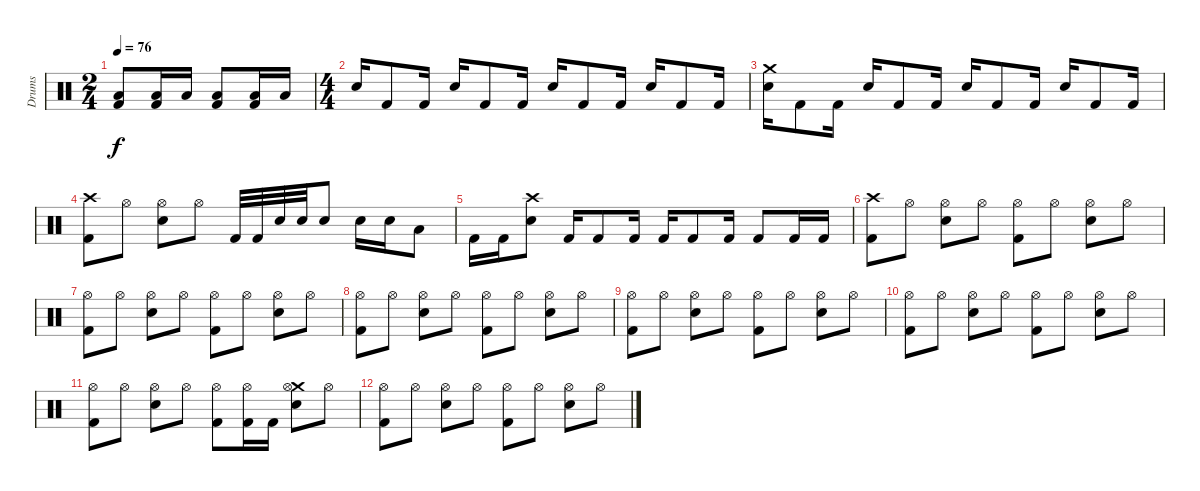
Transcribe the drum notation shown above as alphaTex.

\track ("Drums" "Drums") {instrument percussion}
\staff {score}
\articulation defaults
\ts (2 4)
\tempo 76
\clef neutral
\ks c
("Kick (hit) 2" "Low Floor Tom (hit)").8{dy f} ("Kick (hit) 2" "Low Floor Tom (hit)").16 "Low Floor Tom (hit)".16 ("Kick (hit) 2" "Low Floor Tom (hit)").8 ("Kick (hit) 2" "Low Floor Tom (hit)").16 "Low Floor Tom (hit)".16 |
\ts (4 4)
"Snare (hit) 2".16 "Kick (hit) 2".8 "Kick (hit) 2".16 "Snare (hit) 2".16 "Kick (hit) 2".8 "Kick (hit) 2".16 "Snare (hit) 2".16 "Kick (hit) 2".8 "Kick (hit) 2".16 "Snare (hit) 2".16 "Kick (hit) 2".8 "Kick (hit) 2".16 |
("Crash medium (hit)" "Snare (hit) 2").16 "Kick (hit) 2".8 "Kick (hit) 2".16 "Snare (hit) 2".16 "Kick (hit) 2".8 "Kick (hit) 2".16 "Snare (hit) 2".16 "Kick (hit) 2".8 "Kick (hit) 2".16 "Snare (hit) 2".16 "Kick (hit) 2".8 "Kick (hit) 2".16 |
("Crash high (hit)" "Kick (hit) 2").8 "Hi-Hat (open)".8 ("Snare (hit) 2" "Hi-Hat (open)").8 "Hi-Hat (open)".8 "Kick (hit) 2".32 "Kick (hit) 2".32 "Snare (hit) 2".32 "Snare (hit) 2".32 "Snare (hit) 2".8 "Snare (hit) 2".16 "Snare (hit) 2".16 "Low Tom (hit)".8 |
"Kick (hit) 2".16 "Kick (hit) 2".16 ("Snare (hit) 2" "Crash high (hit)").8 "Kick (hit) 2".16 "Kick (hit) 2".8 "Kick (hit) 2".16 "Kick (hit) 2".16 "Kick (hit) 2".8 "Kick (hit) 2".16 "Kick (hit) 2".8 "Kick (hit) 2".16 "Kick (hit) 2".16 |
("Crash high (hit)" "Kick (hit) 2").8 "Hi-Hat (open)".8 ("Snare (hit) 2" "Hi-Hat (open)").8 "Hi-Hat (open)".8 ("Kick (hit) 2" "Hi-Hat (open)").8 "Hi-Hat (open)".8 ("Snare (hit) 2" "Hi-Hat (open)").8 "Hi-Hat (open)".8 |
("Kick (hit) 2" "Hi-Hat (open)").8 "Hi-Hat (open)".8 ("Snare (hit) 2" "Hi-Hat (open)").8 "Hi-Hat (open)".8 ("Kick (hit) 2" "Hi-Hat (open)").8 "Hi-Hat (open)".8 ("Snare (hit) 2" "Hi-Hat (open)").8 "Hi-Hat (open)".8 |
("Kick (hit) 2" "Hi-Hat (open)").8 "Hi-Hat (open)".8 ("Hi-Hat (open)" "Snare (hit) 2").8 "Hi-Hat (open)".8 ("Hi-Hat (open)" "Kick (hit) 2").8 "Hi-Hat (open)".8 ("Snare (hit) 2" "Hi-Hat (open)").8 "Hi-Hat (open)".8 |
("Kick (hit) 2" "Hi-Hat (open)").8 "Hi-Hat (open)".8 ("Snare (hit) 2" "Hi-Hat (open)").8 "Hi-Hat (open)".8 ("Kick (hit) 2" "Hi-Hat (open)").8 "Hi-Hat (open)".8 ("Snare (hit) 2" "Hi-Hat (open)").8 "Hi-Hat (open)".8 |
("Kick (hit) 2" "Hi-Hat (open)").8 "Hi-Hat (open)".8 ("Snare (hit) 2" "Hi-Hat (open)").8 "Hi-Hat (open)".8 ("Kick (hit) 2" "Hi-Hat (open)").8 "Hi-Hat (open)".8 ("Snare (hit) 2" "Hi-Hat (open)").8 "Hi-Hat (open)".8 |
("Kick (hit) 2" "Hi-Hat (open)").8 "Hi-Hat (open)".8 ("Snare (hit) 2" "Hi-Hat (open)").8 "Hi-Hat (open)".8 ("Kick (hit) 2" "Hi-Hat (open)").8 ("Kick (hit) 2" "Hi-Hat (open)").16 "Kick (hit) 2".16 ("Crash medium (hit)" "Hi-Hat (open)" "Snare (hit) 2").8 "Hi-Hat (open)".8 |
("Kick (hit) 2" "Hi-Hat (open)").8 "Hi-Hat (open)".8 ("Snare (hit) 2" "Hi-Hat (open)").8 "Hi-Hat (open)".8 ("Kick (hit) 2" "Hi-Hat (open)").8 "Hi-Hat (open)".8 ("Snare (hit) 2" "Hi-Hat (open)").8 "Hi-Hat (open)".8
